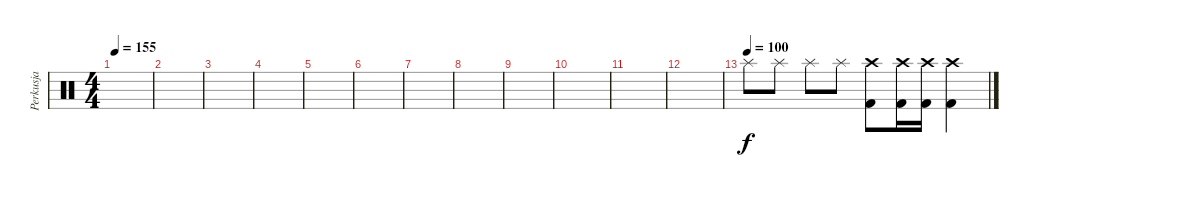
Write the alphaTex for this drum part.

\track ("Perkusja" "Perkusja") {instrument percussion}
\staff {score}
\articulation defaults
\ts (4 4)
\tempo 155
\clef neutral
\ks c
|
|
|
|
|
|
|
|
|
|
|
|
\tempo (100)
"Splash (hit)".8 "Splash (hit)".8 "Splash (hit)".8 "Splash (hit)".8 ("Crash high (hit)" "Kick (hit) 2").8 ("Crash high (hit)" "Kick (hit) 2").16 ("Crash high (hit)" "Kick (hit) 2").16 ("Crash high (hit)" "Kick (hit) 2").4
